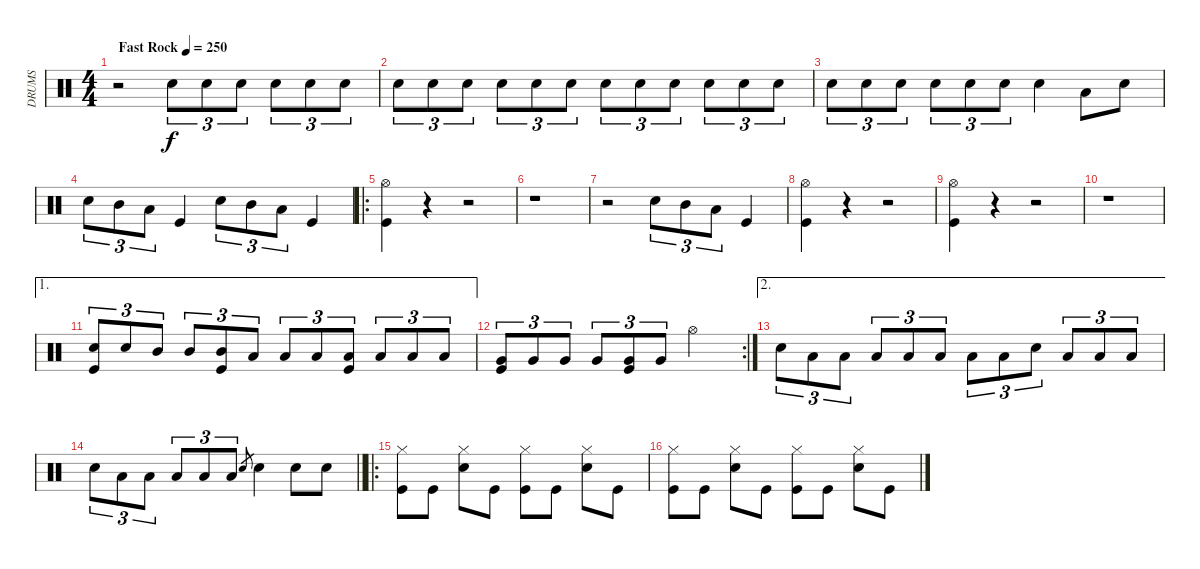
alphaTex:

\track ("DRUMS" "DRUMS") {instrument percussion}
\staff {score}
\articulation defaults
\ts (4 4)
\tempo (250 "Fast Rock")
\clef neutral
\ks aminor
r.2{dy f} "Snare (hit) 2".8{tu (3 2)} "Snare (hit) 2".8{tu (3 2)} "Snare (hit) 2".8{tu (3 2)} "Snare (hit) 2".8{tu (3 2)} "Snare (hit) 2".8{tu (3 2)} "Snare (hit) 2".8{tu (3 2)} |
"Snare (hit) 2".8{tu (3 2)} "Snare (hit) 2".8{tu (3 2)} "Snare (hit) 2".8{tu (3 2)} "Snare (hit) 2".8{tu (3 2)} "Snare (hit) 2".8{tu (3 2)} "Snare (hit) 2".8{tu (3 2)} "Snare (hit) 2".8{tu (3 2)} "Snare (hit) 2".8{tu (3 2)} "Snare (hit) 2".8{tu (3 2)} "Snare (hit) 2".8{tu (3 2)} "Snare (hit) 2".8{tu (3 2)} "Snare (hit) 2".8{tu (3 2)} |
"Snare (hit) 2".8{tu (3 2)} "Snare (hit) 2".8{tu (3 2)} "Snare (hit) 2".8{tu (3 2)} "Snare (hit) 2".8{tu (3 2)} "Snare (hit) 2".8{tu (3 2)} "Snare (hit) 2".8{tu (3 2)} "Snare (hit) 2".4 "Low Tom (hit)".8 "Snare (hit) 2".8 |
"Snare (hit) 2".8{tu (3 2)} "Mid Tom (hit)".8{tu (3 2)} "Low Tom (hit)".8{tu (3 2)} "Kick (hit)".4 "Snare (hit) 2".8{tu (3 2)} "Mid Tom (hit)".8{tu (3 2)} "Low Tom (hit)".8{tu (3 2)} "Kick (hit)".4 |
\ro
("Hi-Hat (open)" "Kick (hit)").4 r.4 r.2 |
r.1 |
r.2 "Snare (hit) 2".8{tu (3 2)} "Mid Tom (hit)".8{tu (3 2)} "Low Tom (hit)".8{tu (3 2)} "Kick (hit)".4 |
("Hi-Hat (open)" "Kick (hit)").4 r.4 r.2 |
("Hi-Hat (open)" "Kick (hit)").4 r.4 r.2 |
r.1 |
\ae 1
("Snare (hit) 2" "Kick (hit)").8{tu (3 2)} "Snare (hit) 2".8{tu (3 2)} "Mid Tom (hit)".8{tu (3 2)} "Mid Tom (hit)".8{tu (3 2)} ("Mid Tom (hit)" "Kick (hit)").8{tu (3 2)} "Low Tom (hit)".8{tu (3 2)} "Low Tom (hit)".8{tu (3 2)} "Low Tom (hit)".8{tu (3 2)} ("Low Tom (hit)" "Kick (hit)").8{tu (3 2)} "Low Tom (hit)".8{tu (3 2)} "Low Tom (hit)".8{tu (3 2)} "Low Tom (hit)".8{tu (3 2)} |
\rc 2
("Very Low Tom (hit)" "Kick (hit)").8{tu (3 2)} "Very Low Tom (hit)".8{tu (3 2)} "Very Low Tom (hit)".8{tu (3 2)} "Very Low Tom (hit)".8{tu (3 2)} ("Very Low Tom (hit)" "Kick (hit)").8{tu (3 2)} "Very Low Tom (hit)".8{tu (3 2)} "Hi-Hat (open)".2 |
\ae 2 "Snare (hit) 2".8{tu (3 2)} "Low Tom (hit)".8{tu (3 2)} "Low Tom (hit)".8{tu (3 2)} "Low Tom (hit)".8{tu (3 2)} "Low Tom (hit)".8{tu (3 2)} "Low Tom (hit)".8{tu (3 2)} "Low Tom (hit)".8{tu (3 2)} "Low Tom (hit)".8{tu (3 2)} "Snare (hit) 2".8{tu (3 2)} "Low Tom (hit)".8{tu (3 2)} "Low Tom (hit)".8{tu (3 2)} "Low Tom (hit)".8{tu (3 2)}
|
\barLineRight lightlight "Snare (hit) 2".8{tu (3 2)} "Low Tom (hit)".8{tu (3 2)} "Low Tom (hit)".8{tu (3 2)} "Low Tom (hit)".8{tu (3 2)} "Low Tom (hit)".8{tu (3 2)} "Low Tom (hit)".8{tu (3 2)} "Snare (hit) 2".8{gr} "Snare (hit) 2".4 "Snare (hit) 2".8 "Snare (hit) 2".8
|
\ro
("Hi-Hat (closed)" "Kick (hit)").8 "Kick (hit)".8 ("Hi-Hat (closed)" "Snare (hit) 2").8 "Kick (hit)".8 ("Hi-Hat (closed)" "Kick (hit)").8 "Kick (hit)".8 ("Hi-Hat (closed)" "Snare (hit) 2").8 "Kick (hit)".8 |
("Hi-Hat (closed)" "Kick (hit)").8 "Kick (hit)".8 ("Hi-Hat (closed)" "Snare (hit) 2").8 "Kick (hit)".8 ("Hi-Hat (closed)" "Kick (hit)").8 "Kick (hit)".8 ("Hi-Hat (closed)" "Snare (hit) 2").8 "Kick (hit)".8
